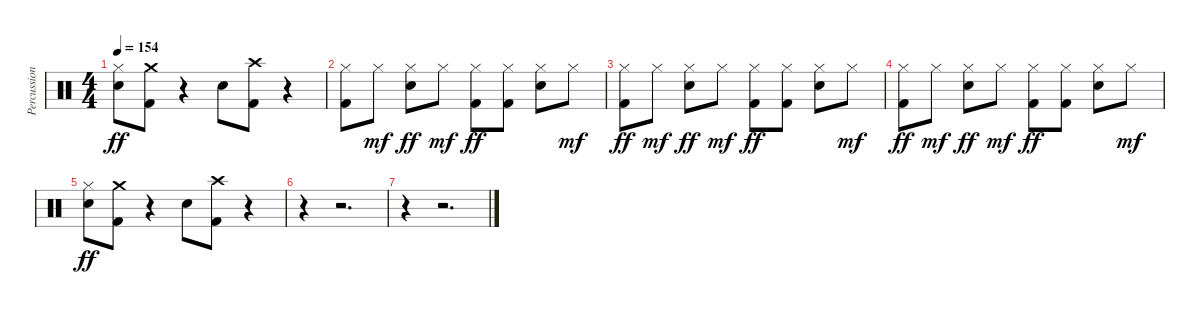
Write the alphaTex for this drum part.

\track ("Percussions" "Percussion") {instrument percussion}
\staff {score}
\articulation defaults
\ts (4 4)
\tempo 154
\clef neutral
\ks c
("Hi-Hat (closed)" "Electric Snare (hit)").8{dy ff} ("Crash medium (hit)" "Kick (hit) 2").8 r.4 "Electric Snare (hit)".8 ("Crash high (hit)" "Kick (hit) 2").8 r.4 |
("Hi-Hat (closed)" "Kick (hit) 2").8 "Hi-Hat (closed)".8{dy mf} ("Hi-Hat (closed)" "Electric Snare (hit)").8{dy ff} "Hi-Hat (closed)".8{dy mf} ("Hi-Hat (closed)" "Kick (hit) 2").8{dy ff} ("Hi-Hat (closed)" "Kick (hit) 2").8 ("Hi-Hat (closed)" "Electric Snare (hit)").8 "Hi-Hat (closed)".8{dy mf} |
("Hi-Hat (closed)" "Kick (hit) 2").8{dy ff} "Hi-Hat (closed)".8{dy mf} ("Hi-Hat (closed)" "Electric Snare (hit)").8{dy ff} "Hi-Hat (closed)".8{dy mf} ("Hi-Hat (closed)" "Kick (hit) 2").8{dy ff} ("Hi-Hat (closed)" "Kick (hit) 2").8 ("Hi-Hat (closed)" "Electric Snare (hit)").8 "Hi-Hat (closed)".8{dy mf} |
("Hi-Hat (closed)" "Kick (hit) 2").8{dy ff} "Hi-Hat (closed)".8{dy mf} ("Hi-Hat (closed)" "Electric Snare (hit)").8{dy ff} "Hi-Hat (closed)".8{dy mf} ("Hi-Hat (closed)" "Kick (hit) 2").8{dy ff} ("Hi-Hat (closed)" "Kick (hit) 2").8 ("Hi-Hat (closed)" "Electric Snare (hit)").8 "Hi-Hat (closed)".8{dy mf} |
("Hi-Hat (closed)" "Electric Snare (hit)").8{dy ff} ("Crash medium (hit)" "Kick (hit) 2").8 r.4 "Electric Snare (hit)".8 ("Crash high (hit)" "Kick (hit) 2").8 r.4 |
r.4 r.2{d} |
r.4 r.2{d}
